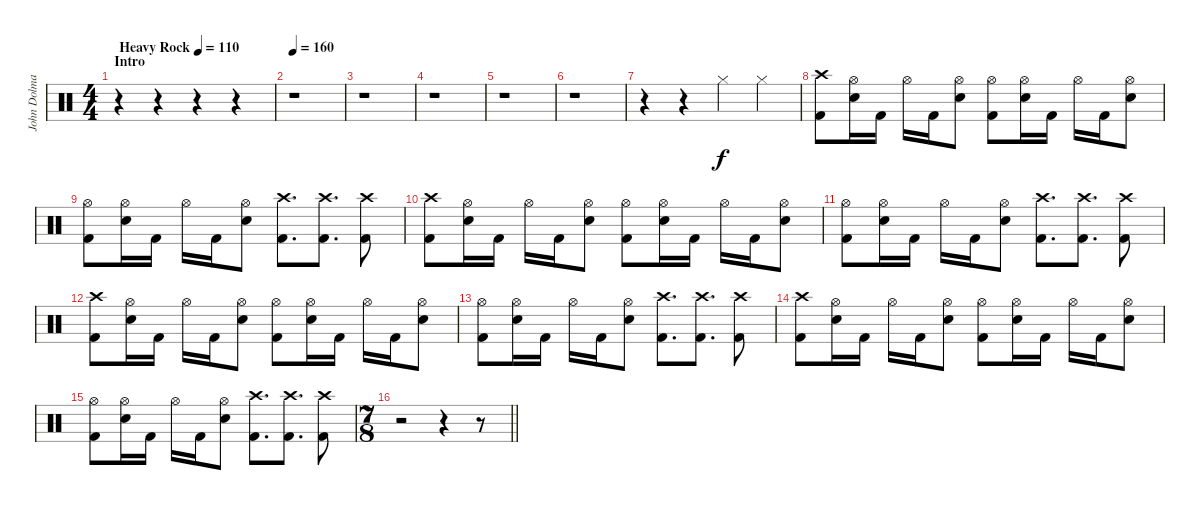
\track ("John Dolmayan" "John Dolma") {instrument percussion}
\staff {score}
\articulation defaults
\ts (4 4)
\section ("" "Intro")
\tempo (110 "Heavy Rock")
\clef neutral
\ks c
r.4{dy f} r.4 r.4 r.4 |
\tempo 160
r.1 |
r.1 |
r.1 |
r.1 |
r.1 |
r.4 r.4 "Hi-Hat (closed)".4 "Hi-Hat (closed)".4 |
("Crash high (hit)" "Kick (hit) 2").8 ("Hi-Hat (open)" "Electric Snare (hit)").16 "Kick (hit) 2".16 "Hi-Hat (open)".16 "Kick (hit) 2".16 ("Hi-Hat (open)" "Electric Snare (hit)").8 ("Hi-Hat (open)" "Kick (hit) 2").8 ("Hi-Hat (open)" "Electric Snare (hit)").16 "Kick (hit) 2".16 "Hi-Hat (open)".16 "Kick (hit) 2".16 ("Hi-Hat (open)" "Electric Snare (hit)").8 |
("Hi-Hat (open)" "Kick (hit) 2").8 ("Hi-Hat (open)" "Electric Snare (hit)").16 "Kick (hit) 2".16 "Hi-Hat (open)".16 "Kick (hit) 2".16 ("Hi-Hat (open)" "Electric Snare (hit)").8 ("Crash high (hit)" "Kick (hit) 2").8{d} ("Crash high (hit)" "Kick (hit) 2").8{d} ("Crash high (hit)" "Kick (hit) 2").8 |
("Crash high (hit)" "Kick (hit) 2").8 ("Hi-Hat (open)" "Electric Snare (hit)").16 "Kick (hit) 2".16 "Hi-Hat (open)".16 "Kick (hit) 2".16 ("Hi-Hat (open)" "Electric Snare (hit)").8 ("Hi-Hat (open)" "Kick (hit) 2").8 ("Hi-Hat (open)" "Electric Snare (hit)").16 "Kick (hit) 2".16 "Hi-Hat (open)".16 "Kick (hit) 2".16 ("Hi-Hat (open)" "Electric Snare (hit)").8 |
("Hi-Hat (open)" "Kick (hit) 2").8 ("Hi-Hat (open)" "Electric Snare (hit)").16 "Kick (hit) 2".16 "Hi-Hat (open)".16 "Kick (hit) 2".16 ("Hi-Hat (open)" "Electric Snare (hit)").8 ("Crash high (hit)" "Kick (hit) 2").8{d} ("Crash high (hit)" "Kick (hit) 2").8{d} ("Crash high (hit)" "Kick (hit) 2").8 |
("Crash high (hit)" "Kick (hit) 2").8 ("Hi-Hat (open)" "Electric Snare (hit)").16 "Kick (hit) 2".16 "Hi-Hat (open)".16 "Kick (hit) 2".16 ("Hi-Hat (open)" "Electric Snare (hit)").8 ("Hi-Hat (open)" "Kick (hit) 2").8 ("Hi-Hat (open)" "Electric Snare (hit)").16 "Kick (hit) 2".16 "Hi-Hat (open)".16 "Kick (hit) 2".16 ("Hi-Hat (open)" "Electric Snare (hit)").8 |
("Hi-Hat (open)" "Kick (hit) 2").8 ("Hi-Hat (open)" "Electric Snare (hit)").16 "Kick (hit) 2".16 "Hi-Hat (open)".16 "Kick (hit) 2".16 ("Hi-Hat (open)" "Electric Snare (hit)").8 ("Crash high (hit)" "Kick (hit) 2").8{d} ("Crash high (hit)" "Kick (hit) 2").8{d} ("Crash high (hit)" "Kick (hit) 2").8 |
("Crash high (hit)" "Kick (hit) 2").8 ("Hi-Hat (open)" "Electric Snare (hit)").16 "Kick (hit) 2".16 "Hi-Hat (open)".16 "Kick (hit) 2".16 ("Hi-Hat (open)" "Electric Snare (hit)").8 ("Hi-Hat (open)" "Kick (hit) 2").8 ("Hi-Hat (open)" "Electric Snare (hit)").16 "Kick (hit) 2".16 "Hi-Hat (open)".16 "Kick (hit) 2".16 ("Hi-Hat (open)" "Electric Snare (hit)").8 |
("Hi-Hat (open)" "Kick (hit) 2").8 ("Hi-Hat (open)" "Electric Snare (hit)").16 "Kick (hit) 2".16 "Hi-Hat (open)".16 "Kick (hit) 2".16 ("Hi-Hat (open)" "Electric Snare (hit)").8 ("Crash high (hit)" "Kick (hit) 2").8{d} ("Crash high (hit)" "Kick (hit) 2").8{d} ("Crash high (hit)" "Kick (hit) 2").8 |
\ts (7 8)
\barLineRight lightlight
r.2 r.4 r.8
